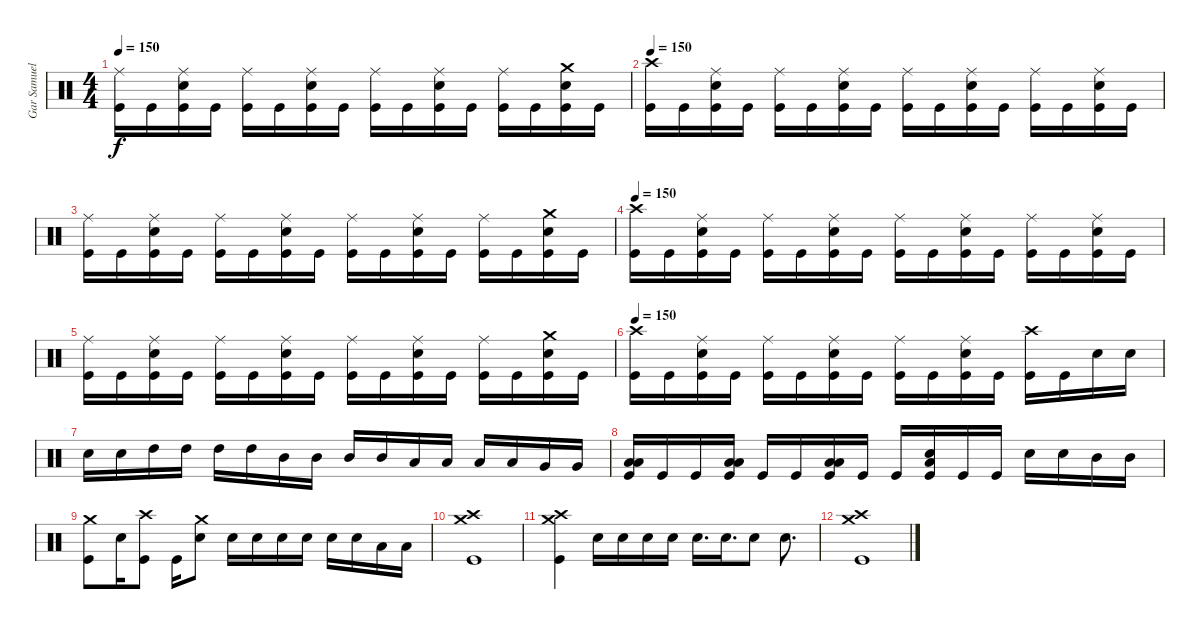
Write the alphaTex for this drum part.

\track ("Gar Samuelson" "Gar Samuel") {instrument percussion}
\staff {score}
\articulation defaults
\ts (4 4)
\tempo 150
\clef neutral
\ks c
("Ride (middle)" "Kick (hit)").16{dy f} "Kick (hit)".16 ("Ride (middle)" "Snare (hit) 2" "Kick (hit)").16 "Kick (hit)".16 ("Ride (middle)" "Kick (hit)").16 "Kick (hit)".16 ("Ride (middle)" "Snare (hit) 2" "Kick (hit)").16 "Kick (hit)".16 ("Ride (middle)" "Kick (hit)").16 "Kick (hit)".16 ("Ride (middle)" "Snare (hit) 2" "Kick (hit)").16 "Kick (hit)".16 ("Ride (middle)" "Kick (hit)").16 "Kick (hit)".16 ("Crash medium (hit)" "Snare (hit) 2" "Kick (hit)").16 "Kick (hit)".16 |
\tempo 150
("Crash high (hit)" "Kick (hit)").16 "Kick (hit)".16 ("Ride (middle)" "Snare (hit) 2" "Kick (hit)").16 "Kick (hit)".16 ("Ride (middle)" "Kick (hit)").16 "Kick (hit)".16 ("Ride (middle)" "Snare (hit) 2" "Kick (hit)").16 "Kick (hit)".16 ("Ride (middle)" "Kick (hit)").16 "Kick (hit)".16 ("Ride (middle)" "Snare (hit) 2" "Kick (hit)").16 "Kick (hit)".16 ("Ride (middle)" "Kick (hit)").16 "Kick (hit)".16 ("Ride (middle)" "Snare (hit) 2" "Kick (hit)").16 "Kick (hit)".16 |
("Ride (middle)" "Kick (hit)").16 "Kick (hit)".16 ("Ride (middle)" "Snare (hit) 2" "Kick (hit)").16 "Kick (hit)".16 ("Ride (middle)" "Kick (hit)").16 "Kick (hit)".16 ("Ride (middle)" "Snare (hit) 2" "Kick (hit)").16 "Kick (hit)".16 ("Ride (middle)" "Kick (hit)").16 "Kick (hit)".16 ("Ride (middle)" "Snare (hit) 2" "Kick (hit)").16 "Kick (hit)".16 ("Ride (middle)" "Kick (hit)").16 "Kick (hit)".16 ("Crash medium (hit)" "Snare (hit) 2" "Kick (hit)").16 "Kick (hit)".16 |
\tempo 150
("Crash high (hit)" "Kick (hit)").16 "Kick (hit)".16 ("Ride (middle)" "Snare (hit) 2" "Kick (hit)").16 "Kick (hit)".16 ("Ride (middle)" "Kick (hit)").16 "Kick (hit)".16 ("Ride (middle)" "Snare (hit) 2" "Kick (hit)").16 "Kick (hit)".16 ("Ride (middle)" "Kick (hit)").16 "Kick (hit)".16 ("Ride (middle)" "Snare (hit) 2" "Kick (hit)").16 "Kick (hit)".16 ("Ride (middle)" "Kick (hit)").16 "Kick (hit)".16 ("Ride (middle)" "Snare (hit) 2" "Kick (hit)").16 "Kick (hit)".16 |
("Ride (middle)" "Kick (hit)").16 "Kick (hit)".16 ("Ride (middle)" "Snare (hit) 2" "Kick (hit)").16 "Kick (hit)".16 ("Ride (middle)" "Kick (hit)").16 "Kick (hit)".16 ("Ride (middle)" "Snare (hit) 2" "Kick (hit)").16 "Kick (hit)".16 ("Ride (middle)" "Kick (hit)").16 "Kick (hit)".16 ("Ride (middle)" "Snare (hit) 2" "Kick (hit)").16 "Kick (hit)".16 ("Ride (middle)" "Kick (hit)").16 "Kick (hit)".16 ("Crash medium (hit)" "Snare (hit) 2" "Kick (hit)").16 "Kick (hit)".16 |
\tempo 150
("Crash high (hit)" "Kick (hit)").16 "Kick (hit)".16 ("Ride (middle)" "Snare (hit) 2" "Kick (hit)").16 "Kick (hit)".16 ("Ride (middle)" "Kick (hit)").16 "Kick (hit)".16 ("Ride (middle)" "Snare (hit) 2" "Kick (hit)").16 "Kick (hit)".16 ("Ride (middle)" "Kick (hit)").16 "Kick (hit)".16 ("Ride (middle)" "Snare (hit) 2" "Kick (hit)").16 "Kick (hit)".16 ("Crash high (hit)" "Kick (hit)").16 "Kick (hit)".16 "Snare (hit) 2".16 "Snare (hit) 2".16 |
"Snare (hit) 2".16 "Snare (hit) 2".16 "High Tom (hit)".16 "High Tom (hit)".16 "High Tom (hit)".16 "High Tom (hit)".16 "Mid Tom (hit)".16 "Mid Tom (hit)".16 "Mid Tom (hit)".16 "Mid Tom (hit)".16 "Low Tom (hit)".16 "Low Tom (hit)".16 "Low Tom (hit)".16 "Low Tom (hit)".16 "Very Low Tom (hit)".16 "Very Low Tom (hit)".16 |
("Low Tom (hit)" "Low Tom (hit)" "Kick (hit)").16 "Kick (hit)".16 "Kick (hit)".16 ("Low Tom (hit)" "Low Tom (hit)" "Kick (hit)").16 "Kick (hit)".16 "Kick (hit)".16 ("Low Tom (hit)" "Low Tom (hit)" "Kick (hit)").16 "Kick (hit)".16 "Kick (hit)".16 ("Low Tom (hit)" "Snare (hit) 2" "Kick (hit)").16 "Kick (hit)".16 "Kick (hit)".16 "Snare (hit) 2".16 "Snare (hit) 2".16 "Mid Tom (hit)".16 "Mid Tom (hit)".16 |
("Crash medium (hit)" "Kick (hit)").8 "Snare (hit) 2".16 ("Crash high (hit)" "Kick (hit)").8 "Kick (hit)".16 ("Crash medium (hit)" "Snare (hit) 2").8 "Snare (hit) 2".16 "Snare (hit) 2".16 "Snare (hit) 2".16 "Snare (hit) 2".16 "Snare (hit) 2".16 "Snare (hit) 2".16 "Low Tom (hit)".16 "Low Tom (hit)".16 |
("Crash high (hit)" "Crash medium (hit)" "Kick (hit)").1 |
("Crash high (hit)" "Crash medium (hit)" "Kick (hit)").4 "Snare (hit) 2".16 "Snare (hit) 2".16 "Snare (hit) 2".16 "Snare (hit) 2".16 "Snare (hit) 2".16{d} "Snare (hit) 2".16{d} "Snare (hit) 2".8 "Snare (hit) 2".8{d} |
("Crash high (hit)" "Crash medium (hit)" "Kick (hit)").1
